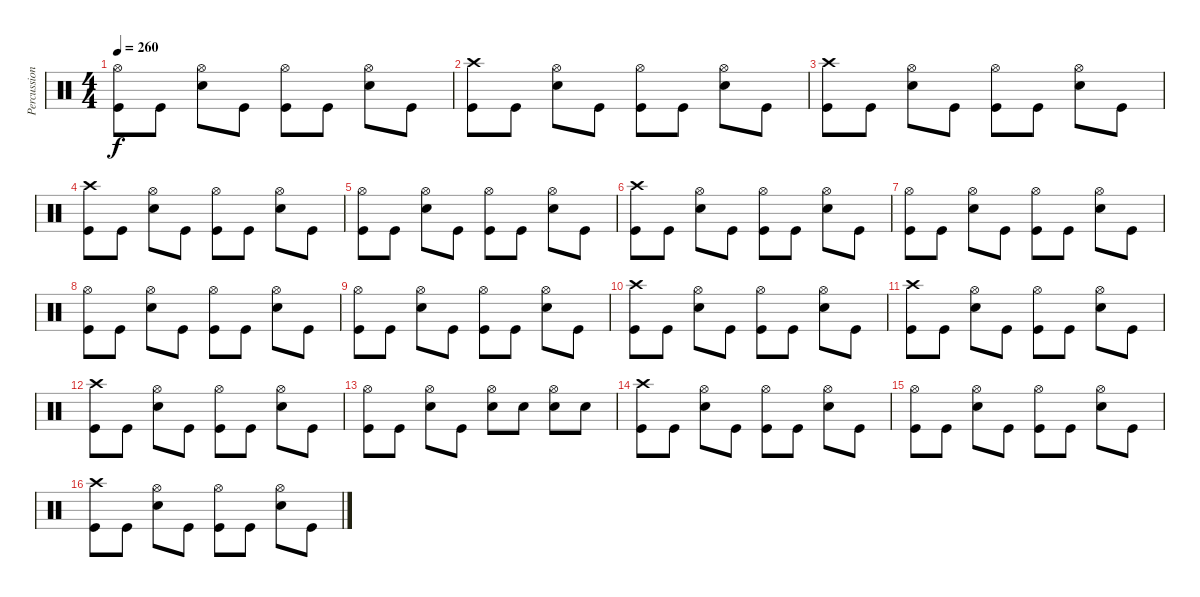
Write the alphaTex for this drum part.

\track ("Percussion" "Percussion") {instrument percussion}
\staff {score}
\articulation defaults
\ts (4 4)
\tempo 260
\clef neutral
\ks c
("Hi-Hat (open)" "Kick (hit)").8{dy f} "Kick (hit)".8 ("Hi-Hat (open)" "Snare (hit) 2").8 "Kick (hit)".8 ("Hi-Hat (open)" "Kick (hit)").8 "Kick (hit)".8 ("Hi-Hat (open)" "Snare (hit) 2").8 "Kick (hit)".8 |
("Crash high (hit)" "Kick (hit)").8 "Kick (hit)".8 ("Hi-Hat (open)" "Snare (hit) 2").8 "Kick (hit)".8 ("Hi-Hat (open)" "Kick (hit)").8 "Kick (hit)".8 ("Hi-Hat (open)" "Snare (hit) 2").8 "Kick (hit)".8 |
("Crash high (hit)" "Kick (hit)").8 "Kick (hit)".8 ("Hi-Hat (open)" "Snare (hit) 2").8 "Kick (hit)".8 ("Hi-Hat (open)" "Kick (hit)").8 "Kick (hit)".8 ("Hi-Hat (open)" "Snare (hit) 2").8 "Kick (hit)".8 |
("Crash high (hit)" "Kick (hit)").8 "Kick (hit)".8 ("Hi-Hat (open)" "Snare (hit) 2").8 "Kick (hit)".8 ("Hi-Hat (open)" "Kick (hit)").8 "Kick (hit)".8 ("Hi-Hat (open)" "Snare (hit) 2").8 "Kick (hit)".8 |
("Hi-Hat (open)" "Kick (hit)").8 "Kick (hit)".8 ("Hi-Hat (open)" "Snare (hit) 2").8 "Kick (hit)".8 ("Hi-Hat (open)" "Kick (hit)").8 "Kick (hit)".8 ("Hi-Hat (open)" "Snare (hit) 2").8 "Kick (hit)".8 |
("Crash high (hit)" "Kick (hit)").8 "Kick (hit)".8 ("Hi-Hat (open)" "Snare (hit) 2").8 "Kick (hit)".8 ("Hi-Hat (open)" "Kick (hit)").8 "Kick (hit)".8 ("Hi-Hat (open)" "Snare (hit) 2").8 "Kick (hit)".8 |
("Hi-Hat (open)" "Kick (hit)").8 "Kick (hit)".8 ("Hi-Hat (open)" "Snare (hit) 2").8 "Kick (hit)".8 ("Hi-Hat (open)" "Kick (hit)").8 "Kick (hit)".8 ("Hi-Hat (open)" "Snare (hit) 2").8 "Kick (hit)".8 |
("Hi-Hat (open)" "Kick (hit)").8 "Kick (hit)".8 ("Hi-Hat (open)" "Snare (hit) 2").8 "Kick (hit)".8 ("Hi-Hat (open)" "Kick (hit)").8 "Kick (hit)".8 ("Hi-Hat (open)" "Snare (hit) 2").8 "Kick (hit)".8 |
("Hi-Hat (open)" "Kick (hit)").8 "Kick (hit)".8 ("Hi-Hat (open)" "Snare (hit) 2").8 "Kick (hit)".8 ("Hi-Hat (open)" "Kick (hit)").8 "Kick (hit)".8 ("Hi-Hat (open)" "Snare (hit) 2").8 "Kick (hit)".8 |
("Crash high (hit)" "Kick (hit)").8 "Kick (hit)".8 ("Hi-Hat (open)" "Snare (hit) 2").8 "Kick (hit)".8 ("Hi-Hat (open)" "Kick (hit)").8 "Kick (hit)".8 ("Hi-Hat (open)" "Snare (hit) 2").8 "Kick (hit)".8 |
("Crash high (hit)" "Kick (hit)").8 "Kick (hit)".8 ("Hi-Hat (open)" "Snare (hit) 2").8 "Kick (hit)".8 ("Hi-Hat (open)" "Kick (hit)").8 "Kick (hit)".8 ("Hi-Hat (open)" "Snare (hit) 2").8 "Kick (hit)".8 |
("Crash high (hit)" "Kick (hit)").8 "Kick (hit)".8 ("Hi-Hat (open)" "Snare (hit) 2").8 "Kick (hit)".8 ("Hi-Hat (open)" "Kick (hit)").8 "Kick (hit)".8 ("Hi-Hat (open)" "Snare (hit) 2").8 "Kick (hit)".8 |
("Hi-Hat (open)" "Kick (hit)").8 "Kick (hit)".8 ("Hi-Hat (open)" "Snare (hit) 2").8 "Kick (hit)".8 ("Hi-Hat (open)" "Snare (hit) 2").8 "Snare (hit) 2".8 ("Hi-Hat (open)" "Snare (hit) 2").8 "Snare (hit) 2".8 |
("Crash high (hit)" "Kick (hit)").8 "Kick (hit)".8 ("Hi-Hat (open)" "Snare (hit) 2").8 "Kick (hit)".8 ("Hi-Hat (open)" "Kick (hit)").8 "Kick (hit)".8 ("Hi-Hat (open)" "Snare (hit) 2").8 "Kick (hit)".8 |
("Hi-Hat (open)" "Kick (hit)").8 "Kick (hit)".8 ("Hi-Hat (open)" "Snare (hit) 2").8 "Kick (hit)".8 ("Hi-Hat (open)" "Kick (hit)").8 "Kick (hit)".8 ("Hi-Hat (open)" "Snare (hit) 2").8 "Kick (hit)".8 |
("Crash high (hit)" "Kick (hit)").8 "Kick (hit)".8 ("Hi-Hat (open)" "Snare (hit) 2").8 "Kick (hit)".8 ("Hi-Hat (open)" "Kick (hit)").8 "Kick (hit)".8 ("Hi-Hat (open)" "Snare (hit) 2").8 "Kick (hit)".8
